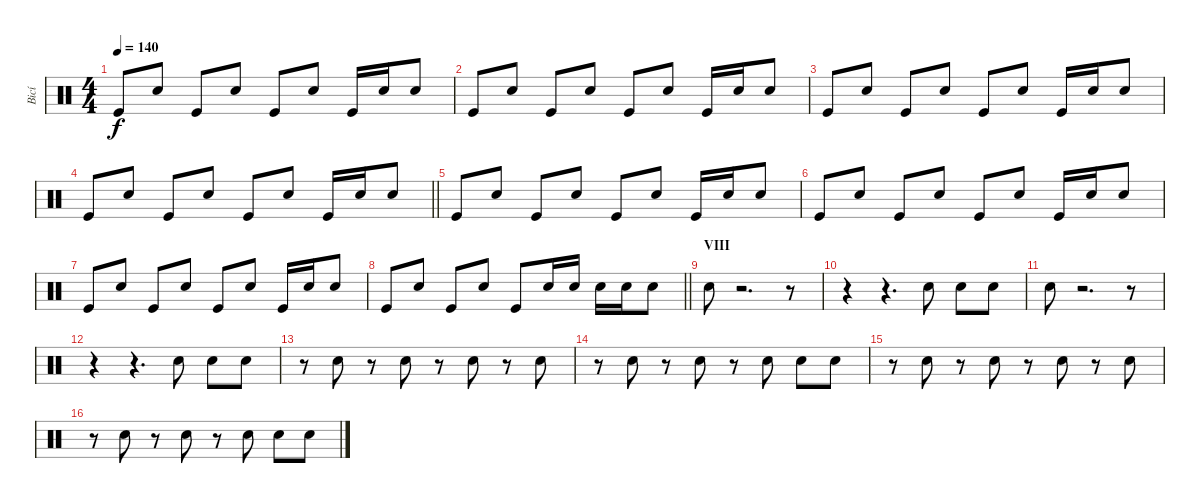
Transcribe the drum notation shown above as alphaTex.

\track ("Bicí" "Bicí") {instrument percussion}
\staff {score}
\articulation defaults
\ts (4 4)
\tempo 140
\clef neutral
\ks c "Kick (hit)".8{dy f} "Electric Snare (hit)".8 "Kick (hit)".8 "Electric Snare (hit)".8 "Kick (hit)".8 "Electric Snare (hit)".8 "Kick (hit)".16 "Electric Snare (hit)".16 "Electric Snare (hit)".8
|
"Kick (hit)".8 "Electric Snare (hit)".8 "Kick (hit)".8 "Electric Snare (hit)".8 "Kick (hit)".8 "Electric Snare (hit)".8 "Kick (hit)".16 "Electric Snare (hit)".16 "Electric Snare (hit)".8 |
"Kick (hit)".8 "Electric Snare (hit)".8 "Kick (hit)".8 "Electric Snare (hit)".8 "Kick (hit)".8 "Electric Snare (hit)".8 "Kick (hit)".16 "Electric Snare (hit)".16 "Electric Snare (hit)".8 |
\barLineRight lightlight "Kick (hit)".8 "Electric Snare (hit)".8 "Kick (hit)".8 "Electric Snare (hit)".8 "Kick (hit)".8 "Electric Snare (hit)".8 "Kick (hit)".16 "Electric Snare (hit)".16 "Electric Snare (hit)".8
|
"Kick (hit)".8 "Electric Snare (hit)".8 "Kick (hit)".8 "Electric Snare (hit)".8 "Kick (hit)".8 "Electric Snare (hit)".8 "Kick (hit)".16 "Electric Snare (hit)".16 "Electric Snare (hit)".8 |
"Kick (hit)".8 "Electric Snare (hit)".8 "Kick (hit)".8 "Electric Snare (hit)".8 "Kick (hit)".8 "Electric Snare (hit)".8 "Kick (hit)".16 "Electric Snare (hit)".16 "Electric Snare (hit)".8 |
"Kick (hit)".8 "Electric Snare (hit)".8 "Kick (hit)".8 "Electric Snare (hit)".8 "Kick (hit)".8 "Electric Snare (hit)".8 "Kick (hit)".16 "Electric Snare (hit)".16 "Electric Snare (hit)".8 |
\barLineRight lightlight "Kick (hit)".8 "Electric Snare (hit)".8 "Kick (hit)".8 "Electric Snare (hit)".8 "Kick (hit)".8 "Electric Snare (hit)".16 "Electric Snare (hit)".16 "Electric Snare (hit)".16 "Electric Snare (hit)".16 "Electric Snare (hit)".8
|
\section ("" "VIII")
"Electric Snare (hit)".8 r.2{d} r.8 |
r.4 r.4{d} "Electric Snare (hit)".8 "Electric Snare (hit)".8 "Electric Snare (hit)".8 |
"Electric Snare (hit)".8 r.2{d} r.8 |
r.4 r.4{d} "Electric Snare (hit)".8 "Electric Snare (hit)".8 "Electric Snare (hit)".8 |
r.8 "Electric Snare (hit)".8 r.8 "Electric Snare (hit)".8 r.8 "Electric Snare (hit)".8 r.8 "Electric Snare (hit)".8 |
r.8 "Electric Snare (hit)".8 r.8 "Electric Snare (hit)".8 r.8 "Electric Snare (hit)".8 "Electric Snare (hit)".8 "Electric Snare (hit)".8 |
r.8 "Electric Snare (hit)".8 r.8 "Electric Snare (hit)".8 r.8 "Electric Snare (hit)".8 r.8 "Electric Snare (hit)".8 |
r.8 "Electric Snare (hit)".8 r.8 "Electric Snare (hit)".8 r.8 "Electric Snare (hit)".8 "Electric Snare (hit)".8 "Electric Snare (hit)".8
